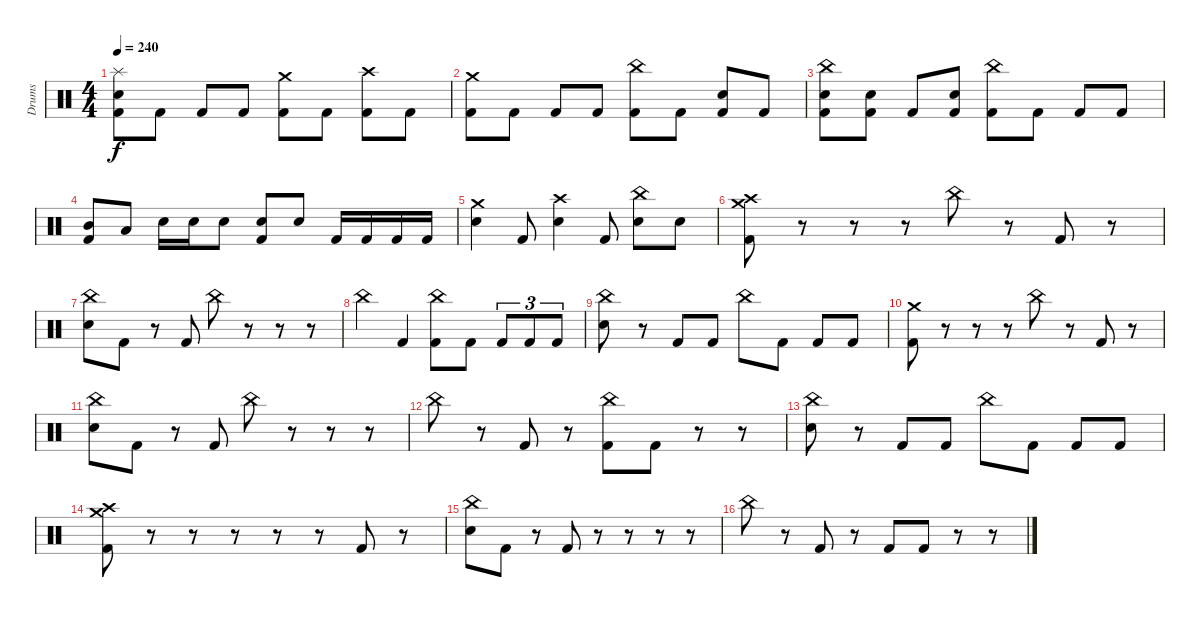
\track ("Drums" "Drums") {instrument percussion}
\staff
\articulation defaults
\ts (4 4)
\tempo 240
\clef neutral
\ks c
("Splash (hit)" "Electric Snare (hit)" "Kick (hit) 2").8{dy f} "Kick (hit) 2".8 "Kick (hit) 2".8 "Kick (hit) 2".8 ("Crash medium (hit)" "Kick (hit) 2").8 "Kick (hit) 2".8 ("Crash high (hit)" "Kick (hit) 2").8 "Kick (hit) 2".8 |
("Crash medium (hit)" "Kick (hit) 2").8 "Kick (hit) 2".8 "Kick (hit) 2".8 "Kick (hit) 2".8 ("China (hit)" "Kick (hit) 2").8 "Kick (hit) 2".8 ("Electric Snare (hit)" "Kick (hit) 2").8 "Kick (hit) 2".8 |
("China (hit)" "Electric Snare (hit)" "Kick (hit) 2").8 ("Electric Snare (hit)" "Kick (hit) 2").8 "Kick (hit) 2".8 ("Electric Snare (hit)" "Kick (hit) 2").8 ("China (hit)" "Kick (hit) 2").8 "Kick (hit) 2".8 "Kick (hit) 2".8 "Kick (hit) 2".8 |
("Mid Tom (hit)" "Kick (hit) 2").8 "Low Tom (hit)".8 "Electric Snare (hit)".16 "Electric Snare (hit)".16 "Electric Snare (hit)".8 ("Electric Snare (hit)" "Kick (hit) 2").8 "Electric Snare (hit)".8 "Kick (hit) 2".16 "Kick (hit) 2".16 "Kick (hit) 2".16 "Kick (hit) 2".16 |
("Crash medium (hit)" "Electric Snare (hit)").4 "Kick (hit) 2".8 ("Crash high (hit)" "Electric Snare (hit)").4 "Kick (hit) 2".8 ("China (hit)" "Electric Snare (hit)").8 "Electric Snare (hit)".8 |
("Crash medium (hit)" "Crash high (hit)" "Kick (hit) 2").8 r.8 r.8 r.8 "China (hit)".8 r.8 "Kick (hit) 2".8 r.8 |
("China (hit)" "Electric Snare (hit)").8 "Kick (hit) 2".8 r.8 "Kick (hit) 2".8 "China (hit)".8 r.8 r.8 r.8 |
"China (hit)".4 "Kick (hit) 2".4 ("China (hit)" "Kick (hit) 2").8 "Kick (hit) 2".8 "Kick (hit) 2".8{tu (3 2)} "Kick (hit) 2".8{tu (3 2)} "Kick (hit) 2".8{tu (3 2)} |
("China (hit)" "Electric Snare (hit)").8 r.8 "Kick (hit) 2".8 "Kick (hit) 2".8 "China (hit)".8 "Kick (hit) 2".8 "Kick (hit) 2".8 "Kick (hit) 2".8 |
("Crash medium (hit)" "Kick (hit) 2").8 r.8 r.8 r.8 "China (hit)".8 r.8 "Kick (hit) 2".8 r.8 |
("China (hit)" "Electric Snare (hit)").8 "Kick (hit) 2".8 r.8 "Kick (hit) 2".8 "China (hit)".8 r.8 r.8 r.8 |
"China (hit)".8 r.8 "Kick (hit) 2".8 r.8 ("China (hit)" "Kick (hit) 2").8 "Kick (hit) 2".8 r.8 r.8 |
("China (hit)" "Electric Snare (hit)").8 r.8 "Kick (hit) 2".8 "Kick (hit) 2".8 "China (hit)".8 "Kick (hit) 2".8 "Kick (hit) 2".8 "Kick (hit) 2".8 |
("Crash medium (hit)" "Crash high (hit)" "Kick (hit) 2").8 r.8 r.8 r.8 r.8 r.8 "Kick (hit) 2".8 r.8 |
("China (hit)" "Electric Snare (hit)").8 "Kick (hit) 2".8 r.8 "Kick (hit) 2".8 r.8 r.8 r.8 r.8 |
"China (hit)".8 r.8 "Kick (hit) 2".8 r.8 "Kick (hit) 2".8 "Kick (hit) 2".8 r.8 r.8
